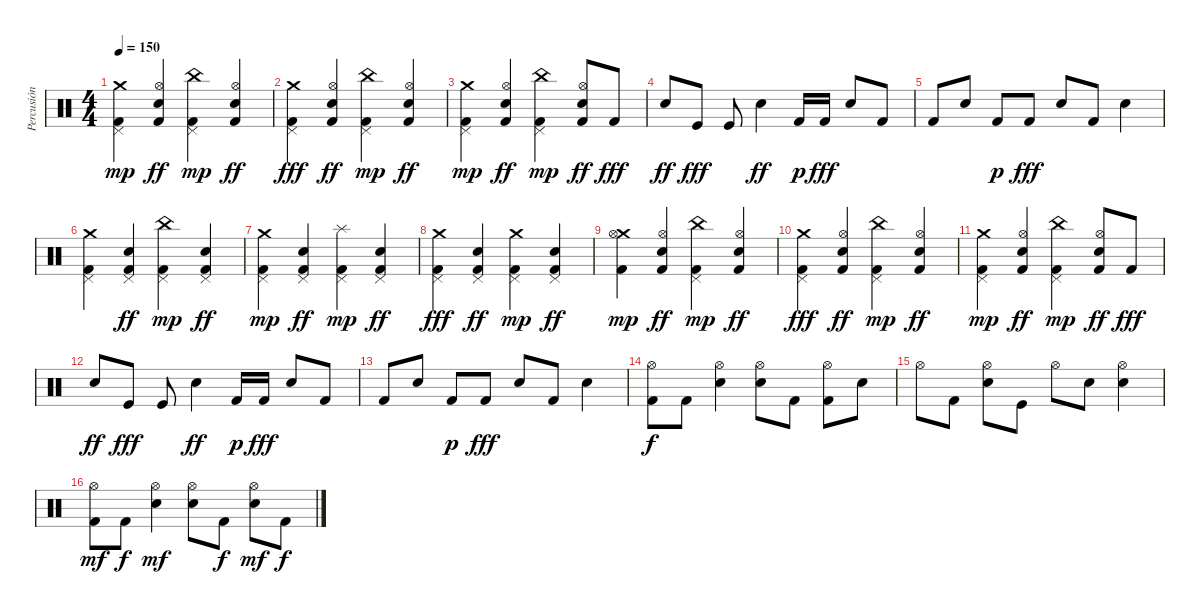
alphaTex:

\track ("Percusión" "Percusión") {instrument percussion}
\staff {score}
\articulation defaults
\ts (4 4)
\tempo 150
\clef neutral
\ks c
("Crash medium (hit)" "Kick (hit) 2" "Pedal Hi-Hat (hit)").4{dy mp} ("Hi-Hat (open)" "Kick (hit) 2" "Electric Snare (hit)").4{dy ff} ("China (hit)" "Kick (hit) 2" "Pedal Hi-Hat (hit)").4{dy mp} ("Hi-Hat (open)" "Kick (hit) 2" "Electric Snare (hit)").4{dy ff} |
("Pedal Hi-Hat (hit)" "Kick (hit) 2" "Crash medium (hit)").4{dy fff} ("Hi-Hat (open)" "Kick (hit) 2" "Electric Snare (hit)").4{dy ff} ("China (hit)" "Kick (hit) 2" "Pedal Hi-Hat (hit)").4{dy mp} ("Hi-Hat (open)" "Kick (hit) 2" "Electric Snare (hit)").4{dy ff} |
("Crash medium (hit)" "Kick (hit) 2" "Pedal Hi-Hat (hit)").4{dy mp} ("Hi-Hat (open)" "Kick (hit) 2" "Electric Snare (hit)").4{dy ff} ("China (hit)" "Kick (hit) 2" "Pedal Hi-Hat (hit)").4{dy mp} ("Hi-Hat (open)" "Kick (hit) 2" "Electric Snare (hit)").8{dy ff} "Kick (hit) 2".8{dy fff} |
"Electric Snare (hit)".8{dy ff} "Kick (hit)".8{dy fff} "Kick (hit)".8 "Electric Snare (hit)".4{dy ff} "Kick (hit) 2".16{dy p} "Kick (hit) 2".16{dy fff} "Electric Snare (hit)".8 "Kick (hit) 2".8 |
"Kick (hit) 2".8 "Electric Snare (hit)".8 "Kick (hit) 2".8{dy p} "Kick (hit) 2".8{dy fff} "Electric Snare (hit)".8 "Kick (hit) 2".8 "Electric Snare (hit)".4 |
("Pedal Hi-Hat (hit)" "Kick (hit) 2" "Crash medium (hit)").4 ("Pedal Hi-Hat (hit)" "Kick (hit) 2" "Electric Snare (hit)").4{dy ff} ("China (hit)" "Kick (hit) 2" "Pedal Hi-Hat (hit)").4{dy mp} ("Pedal Hi-Hat (hit)" "Kick (hit) 2" "Electric Snare (hit)").4{dy ff} |
("Crash medium (hit)" "Kick (hit) 2" "Pedal Hi-Hat (hit)").4{dy mp} ("Pedal Hi-Hat (hit)" "Kick (hit) 2" "Electric Snare (hit)").4{dy ff} ("Splash (hit)" "Kick (hit) 2" "Pedal Hi-Hat (hit)").4{dy mp} ("Pedal Hi-Hat (hit)" "Kick (hit) 2" "Electric Snare (hit)").4{dy ff} |
("Pedal Hi-Hat (hit)" "Kick (hit) 2" "Crash medium (hit)").4{dy fff} ("Pedal Hi-Hat (hit)" "Kick (hit) 2" "Electric Snare (hit)").4{dy ff} ("Crash medium (hit)" "Kick (hit) 2" "Pedal Hi-Hat (hit)").4{dy mp} ("Pedal Hi-Hat (hit)" "Kick (hit) 2" "Electric Snare (hit)").4{dy ff} |
("Crash medium (hit)" "Kick (hit) 2" "Hi-Hat (open)").4{dy mp} ("Hi-Hat (open)" "Kick (hit) 2" "Electric Snare (hit)").4{dy ff} ("China (hit)" "Kick (hit) 2" "Pedal Hi-Hat (hit)").4{dy mp} ("Hi-Hat (open)" "Kick (hit) 2" "Electric Snare (hit)").4{dy ff} |
("Pedal Hi-Hat (hit)" "Kick (hit) 2" "Crash medium (hit)").4{dy fff} ("Hi-Hat (open)" "Kick (hit) 2" "Electric Snare (hit)").4{dy ff} ("China (hit)" "Kick (hit) 2" "Pedal Hi-Hat (hit)").4{dy mp} ("Hi-Hat (open)" "Kick (hit) 2" "Electric Snare (hit)").4{dy ff} |
("Crash medium (hit)" "Kick (hit) 2" "Pedal Hi-Hat (hit)").4{dy mp} ("Hi-Hat (open)" "Kick (hit) 2" "Electric Snare (hit)").4{dy ff} ("China (hit)" "Kick (hit) 2" "Pedal Hi-Hat (hit)").4{dy mp} ("Hi-Hat (open)" "Kick (hit) 2" "Electric Snare (hit)").8{dy ff} "Kick (hit) 2".8{dy fff} |
"Electric Snare (hit)".8{dy ff} "Kick (hit)".8{dy fff} "Kick (hit)".8 "Electric Snare (hit)".4{dy ff} "Kick (hit) 2".16{dy p} "Kick (hit) 2".16{dy fff} "Electric Snare (hit)".8 "Kick (hit) 2".8 |
"Kick (hit) 2".8 "Electric Snare (hit)".8 "Kick (hit) 2".8{dy p} "Kick (hit) 2".8{dy fff} "Electric Snare (hit)".8 "Kick (hit) 2".8 "Electric Snare (hit)".4 |
("Hi-Hat (open)" "Kick (hit) 2").8{dy f} "Kick (hit) 2".8 ("Electric Snare (hit)" "Hi-Hat (open)").4 ("Hi-Hat (open)" "Electric Snare (hit)").8 "Kick (hit) 2".8 ("Kick (hit) 2" "Hi-Hat (open)").8 "Electric Snare (hit)".8 |
"Hi-Hat (open)".8 "Kick (hit) 2".8 ("Electric Snare (hit)" "Hi-Hat (open)").8 "Kick (hit)".8 "Hi-Hat (open)".8 "Electric Snare (hit)".8 ("Electric Snare (hit)" "Hi-Hat (open)").4 |
("Hi-Hat (open)" "Kick (hit) 2").8{dy mf} "Kick (hit) 2".8{dy f} ("Electric Snare (hit)" "Hi-Hat (open)").4{dy mf} ("Hi-Hat (open)" "Electric Snare (hit)").8 "Kick (hit) 2".8{dy f} ("Hi-Hat (open)" "Electric Snare (hit)").8{dy mf} "Kick (hit) 2".8{dy f}
